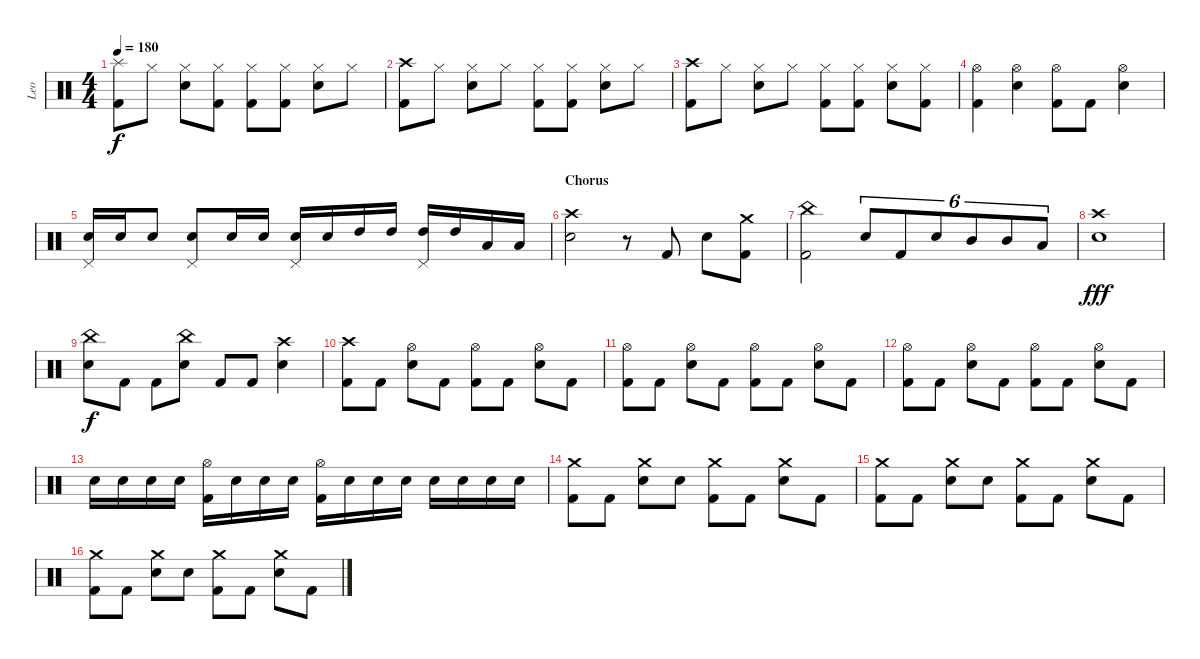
\track ("Leo" "Leo") {instrument percussion}
\staff {score}
\articulation defaults
\ts (4 4)
\tempo 180
\clef neutral
\ks c
("Splash (hit)" "Kick (hit) 2").8{dy f} "Hi-Hat (closed)".8 ("Hi-Hat (closed)" "Electric Snare (hit)").8 ("Hi-Hat (closed)" "Kick (hit) 2").8 ("Hi-Hat (closed)" "Kick (hit) 2").8 ("Hi-Hat (closed)" "Kick (hit) 2").8 ("Hi-Hat (closed)" "Electric Snare (hit)").8 "Hi-Hat (closed)".8 |
("Crash high (hit)" "Kick (hit) 2").8 "Hi-Hat (closed)".8 ("Hi-Hat (closed)" "Electric Snare (hit)").8 "Hi-Hat (closed)".8 ("Hi-Hat (closed)" "Kick (hit) 2").8 ("Hi-Hat (closed)" "Kick (hit) 2").8 ("Hi-Hat (closed)" "Electric Snare (hit)").8 "Hi-Hat (closed)".8 |
("Crash high (hit)" "Kick (hit) 2").8 "Hi-Hat (closed)".8 ("Hi-Hat (closed)" "Electric Snare (hit)").8 "Hi-Hat (closed)".8 ("Hi-Hat (closed)" "Kick (hit) 2").8 ("Hi-Hat (closed)" "Kick (hit) 2").8 ("Hi-Hat (closed)" "Electric Snare (hit)").8 ("Hi-Hat (closed)" "Kick (hit) 2").8 |
("Hi-Hat (open)" "Kick (hit) 2").4 ("Hi-Hat (open)" "Electric Snare (hit)").4 ("Hi-Hat (open)" "Kick (hit) 2").8 "Kick (hit) 2".8 ("Hi-Hat (open)" "Electric Snare (hit)").4 |
("Electric Snare (hit)" "Pedal Hi-Hat (hit)").16 "Electric Snare (hit)".16 "Electric Snare (hit)".8 ("Electric Snare (hit)" "Pedal Hi-Hat (hit)").8 "Electric Snare (hit)".16 "Electric Snare (hit)".16 ("Electric Snare (hit)" "Pedal Hi-Hat (hit)").16 "Electric Snare (hit)".16 "High Tom (hit)".16 "High Tom (hit)".16 ("High Tom (hit)" "Pedal Hi-Hat (hit)").16 "High Tom (hit)".16 "Low Tom (hit)".16 "Low Tom (hit)".16 |
\section ("" "Chorus")
("Crash high (hit)" "Electric Snare (hit)").2 r.8 "Kick (hit) 2".8 "Electric Snare (hit)".8 ("Crash medium (hit)" "Kick (hit) 2").8 |
("China (hit)" "Kick (hit) 2").2 "Electric Snare (hit)".8{tu (6 4)} "Kick (hit) 2".8{tu (6 4)} "Electric Snare (hit)".8{tu (6 4)} "Mid Tom (hit)".8{tu (6 4)} "Mid Tom (hit)".8{tu (6 4)} "Low Tom (hit)".8{tu (6 4)} |
("Crash high (hit)" "Electric Snare (hit)").1{dy fff} |
("China (hit)" "Electric Snare (hit)").8{dy f} "Kick (hit) 2".8 "Kick (hit) 2".8 ("China (hit)" "Electric Snare (hit)").8 "Kick (hit) 2".8 "Kick (hit) 2".8 ("Crash high (hit)" "Electric Snare (hit)").4 |
("Crash high (hit)" "Kick (hit) 2").8 "Kick (hit) 2".8 ("Hi-Hat (open)" "Electric Snare (hit)").8 "Kick (hit) 2".8 ("Hi-Hat (open)" "Kick (hit) 2").8 "Kick (hit) 2".8 ("Hi-Hat (open)" "Electric Snare (hit)").8 "Kick (hit) 2".8 |
("Hi-Hat (open)" "Kick (hit) 2").8 "Kick (hit) 2".8 ("Hi-Hat (open)" "Electric Snare (hit)").8 "Kick (hit) 2".8 ("Hi-Hat (open)" "Kick (hit) 2").8 "Kick (hit) 2".8 ("Hi-Hat (open)" "Electric Snare (hit)").8 "Kick (hit) 2".8 |
("Hi-Hat (open)" "Kick (hit) 2").8 "Kick (hit) 2".8 ("Hi-Hat (open)" "Electric Snare (hit)").8 "Kick (hit) 2".8 ("Hi-Hat (open)" "Kick (hit) 2").8 "Kick (hit) 2".8 ("Hi-Hat (open)" "Electric Snare (hit)").8 "Kick (hit) 2".8 |
"Electric Snare (hit)".16 "Electric Snare (hit)".16 "Electric Snare (hit)".16 "Electric Snare (hit)".16 ("Hi-Hat (open)" "Kick (hit) 2").16 "Electric Snare (hit)".16 "Electric Snare (hit)".16 "Electric Snare (hit)".16 ("Hi-Hat (open)" "Kick (hit) 2").16 "Electric Snare (hit)".16 "Electric Snare (hit)".16 "Electric Snare (hit)".16 "Electric Snare (hit)".16 "Electric Snare (hit)".16 "Electric Snare (hit)".16 "Electric Snare (hit)".16 |
("Crash medium (hit)" "Kick (hit) 2").8 "Kick (hit) 2".8 ("Crash medium (hit)" "Electric Snare (hit)").8 "Electric Snare (hit)".8 ("Crash medium (hit)" "Kick (hit) 2").8 "Kick (hit) 2".8 ("Crash medium (hit)" "Electric Snare (hit)").8 "Kick (hit) 2".8 |
("Crash medium (hit)" "Kick (hit) 2").8 "Kick (hit) 2".8 ("Crash medium (hit)" "Electric Snare (hit)").8 "Electric Snare (hit)".8 ("Crash medium (hit)" "Kick (hit) 2").8 "Kick (hit) 2".8 ("Crash medium (hit)" "Electric Snare (hit)").8 "Kick (hit) 2".8 |
("Crash medium (hit)" "Kick (hit) 2").8 "Kick (hit) 2".8 ("Crash medium (hit)" "Electric Snare (hit)").8 "Electric Snare (hit)".8 ("Crash medium (hit)" "Kick (hit) 2").8 "Kick (hit) 2".8 ("Crash medium (hit)" "Electric Snare (hit)").8 "Kick (hit) 2".8
